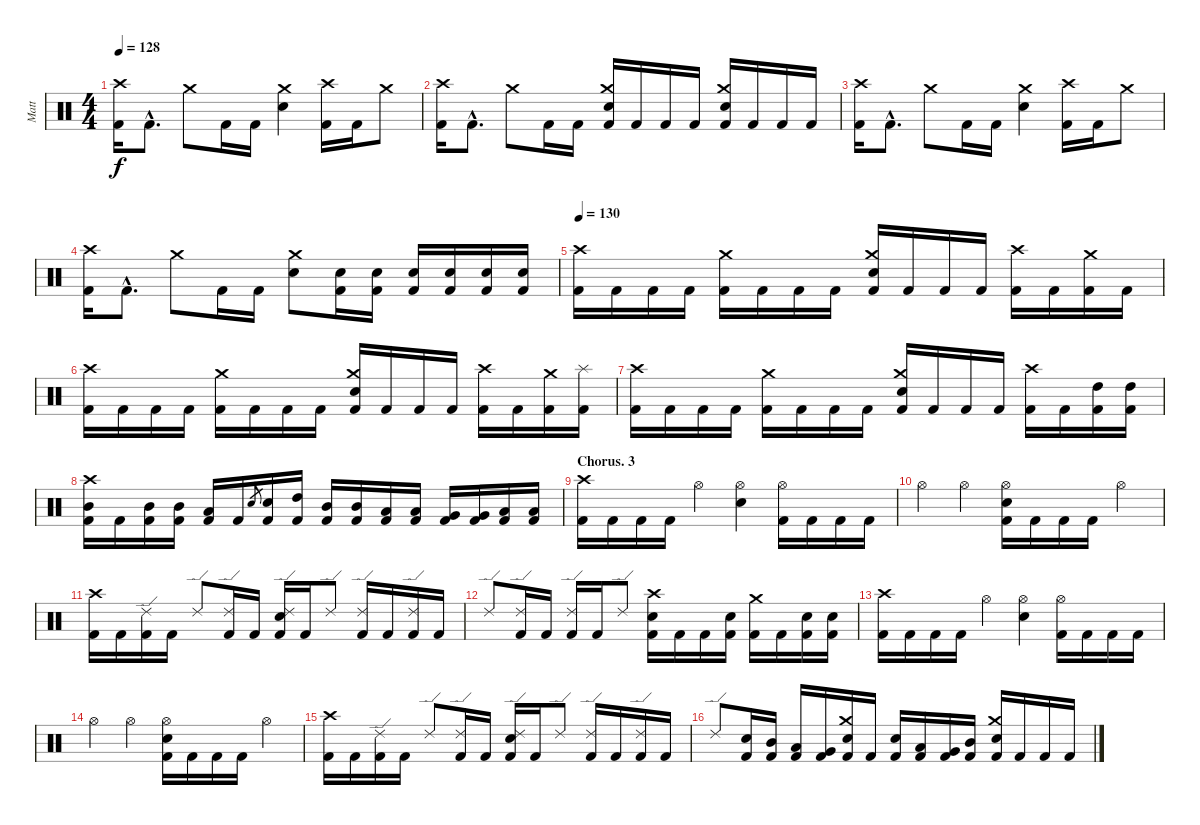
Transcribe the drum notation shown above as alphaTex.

\track ("Matt" "Matt") {instrument percussion}
\staff {score}
\articulation defaults
\ts (4 4)
\tempo 128
\clef neutral
\ks c
("Crash high (hit)" "Kick (hit) 2").16{dy f} "Kick (hit) 2"{hac}.8{d} "Crash medium (hit)".8 "Kick (hit) 2".16 "Kick (hit) 2".16 ("Crash medium (hit)" "Electric Snare (hit)").4 ("Crash high (hit)" "Kick (hit) 2").16 "Kick (hit) 2".16 "Crash medium (hit)".8 |
("Crash high (hit)" "Kick (hit) 2").16 "Kick (hit) 2"{hac}.8{d} "Crash medium (hit)".8 "Kick (hit) 2".16 "Kick (hit) 2".16 ("Crash medium (hit)" "Electric Snare (hit)" "Kick (hit) 2").16 "Kick (hit) 2".16 "Kick (hit) 2".16 "Kick (hit) 2".16 ("Crash medium (hit)" "Electric Snare (hit)" "Kick (hit) 2").16 "Kick (hit) 2".16 "Kick (hit) 2".16 "Kick (hit) 2".16 |
("Crash high (hit)" "Kick (hit) 2").16 "Kick (hit) 2"{hac}.8{d} "Crash medium (hit)".8 "Kick (hit) 2".16 "Kick (hit) 2".16 ("Crash medium (hit)" "Electric Snare (hit)").4 ("Crash high (hit)" "Kick (hit) 2").16 "Kick (hit) 2".16 "Crash medium (hit)".8 |
("Crash high (hit)" "Kick (hit) 2").16 "Kick (hit) 2"{hac}.8{d} "Crash medium (hit)".8 "Kick (hit) 2".16 "Kick (hit) 2".16 ("Crash medium (hit)" "Electric Snare (hit)").8 ("Electric Snare (hit)" "Kick (hit) 2").16 ("Electric Snare (hit)" "Kick (hit) 2").16 ("Electric Snare (hit)" "Kick (hit) 2").16 ("Electric Snare (hit)" "Kick (hit) 2").16 ("Electric Snare (hit)" "Kick (hit) 2").16 ("Electric Snare (hit)" "Kick (hit) 2").16 |
\tempo 130
("Crash high (hit)" "Kick (hit) 2").16 "Kick (hit) 2".16 "Kick (hit) 2".16 "Kick (hit) 2".16 ("Crash medium (hit)" "Kick (hit) 2").16 "Kick (hit) 2".16 "Kick (hit) 2".16 "Kick (hit) 2".16 ("Crash medium (hit)" "Electric Snare (hit)" "Kick (hit) 2").16 "Kick (hit) 2".16 "Kick (hit) 2".16 "Kick (hit) 2".16 ("Crash high (hit)" "Kick (hit) 2").16 "Kick (hit) 2".16 ("Crash medium (hit)" "Kick (hit) 2").16 "Kick (hit) 2".16 |
("Crash high (hit)" "Kick (hit) 2").16 "Kick (hit) 2".16 "Kick (hit) 2".16 "Kick (hit) 2".16 ("Crash medium (hit)" "Kick (hit) 2").16 "Kick (hit) 2".16 "Kick (hit) 2".16 "Kick (hit) 2".16 ("Crash medium (hit)" "Electric Snare (hit)" "Kick (hit) 2").16 "Kick (hit) 2".16 "Kick (hit) 2".16 "Kick (hit) 2".16 ("Crash high (hit)" "Kick (hit) 2").16 "Kick (hit) 2".16 ("Crash medium (hit)" "Kick (hit) 2").16 ("Splash (hit)" "Kick (hit) 2").16 |
("Crash high (hit)" "Kick (hit) 2").16 "Kick (hit) 2".16 "Kick (hit) 2".16 "Kick (hit) 2".16 ("Crash medium (hit)" "Kick (hit) 2").16 "Kick (hit) 2".16 "Kick (hit) 2".16 "Kick (hit) 2".16 ("Crash medium (hit)" "Electric Snare (hit)" "Kick (hit) 2").16 "Kick (hit) 2".16 "Kick (hit) 2".16 "Kick (hit) 2".16 ("Crash high (hit)" "Kick (hit) 2").16 "Kick (hit) 2".16 ("High Tom (hit)" "Kick (hit) 2").16 ("High Tom (hit)" "Kick (hit) 2").16 |
("Crash high (hit)" "Mid Tom (hit)" "Kick (hit) 2").16 "Kick (hit) 2".16 ("Mid Tom (hit)" "Kick (hit) 2").16 ("Mid Tom (hit)" "Kick (hit) 2").16 ("Low Tom (hit)" "Kick (hit) 2").16 "Kick (hit) 2".16 "Electric Snare (hit)".8{gr} ("Electric Snare (hit)" "Kick (hit) 2").16 ("High Tom (hit)" "Kick (hit) 2").16 ("Mid Tom (hit)" "Kick (hit) 2").16 ("Mid Tom (hit)" "Kick (hit) 2").16 ("Low Tom (hit)" "Kick (hit) 2").16 ("Low Tom (hit)" "Kick (hit) 2").16 ("Very Low Tom (hit)" "Kick (hit) 2").16 ("Very Low Tom (hit)" "Kick (hit) 2").16 ("Low Floor Tom (hit)" "Kick (hit) 2").16 ("Low Floor Tom (hit)" "Kick (hit) 2").16 |
\section ("" "Chorus. 3")
("Crash high (hit)" "Kick (hit) 2").16 "Kick (hit) 2".16 "Kick (hit) 2".16 "Kick (hit) 2".16 "Hi-Hat (open)".4 ("Hi-Hat (open)" "Electric Snare (hit)").4 ("Hi-Hat (open)" "Kick (hit) 2").16 "Kick (hit) 2".16 "Kick (hit) 2".16 "Kick (hit) 2".16 |
"Hi-Hat (open)".4 "Hi-Hat (open)".4 ("Hi-Hat (open)" "Electric Snare (hit)" "Kick (hit) 2").16 "Kick (hit) 2".16 "Kick (hit) 2".16 "Kick (hit) 2".16 "Hi-Hat (open)".4 |
("Crash high (hit)" "Kick (hit) 2").16 "Kick (hit) 2".16 ("Ride (edge) 2" "Kick (hit) 2").16 "Kick (hit) 2".16 "Ride (edge) 2".8 ("Ride (edge) 2" "Kick (hit) 2").16 "Kick (hit) 2".16 ("Ride (edge) 2" "Electric Snare (hit)" "Kick (hit) 2").16 "Kick (hit) 2".16 "Ride (edge) 2".8 ("Ride (edge) 2" "Kick (hit) 2").16 "Kick (hit) 2".16 ("Ride (edge) 2" "Kick (hit) 2").16 "Kick (hit) 2".16 |
"Ride (edge) 2".8 ("Ride (edge) 2" "Kick (hit) 2").16 "Kick (hit) 2".16 ("Ride (edge) 2" "Kick (hit) 2").16 "Kick (hit) 2".16 "Ride (edge) 2".8 ("Crash high (hit)" "Electric Snare (hit)" "Kick (hit) 2").16 "Kick (hit) 2".16 "Kick (hit) 2".16 ("Electric Snare (hit)" "Kick (hit) 2").16 ("Crash medium (hit)" "Kick (hit) 2").16 "Kick (hit) 2".16 ("Electric Snare (hit)" "Kick (hit) 2").16 ("Electric Snare (hit)" "Kick (hit) 2").16 |
("Crash high (hit)" "Kick (hit) 2").16 "Kick (hit) 2".16 "Kick (hit) 2".16 "Kick (hit) 2".16 "Hi-Hat (open)".4 ("Hi-Hat (open)" "Electric Snare (hit)").4 ("Hi-Hat (open)" "Kick (hit) 2").16 "Kick (hit) 2".16 "Kick (hit) 2".16 "Kick (hit) 2".16 |
"Hi-Hat (open)".4 "Hi-Hat (open)".4 ("Hi-Hat (open)" "Electric Snare (hit)" "Kick (hit) 2").16 "Kick (hit) 2".16 "Kick (hit) 2".16 "Kick (hit) 2".16 "Hi-Hat (open)".4 |
("Crash high (hit)" "Kick (hit) 2").16 "Kick (hit) 2".16 ("Ride (edge) 2" "Kick (hit) 2").16 "Kick (hit) 2".16 "Ride (edge) 2".8 ("Ride (edge) 2" "Kick (hit) 2").16 "Kick (hit) 2".16 ("Ride (edge) 2" "Electric Snare (hit)" "Kick (hit) 2").16 "Kick (hit) 2".16 "Ride (edge) 2".8 ("Ride (edge) 2" "Kick (hit) 2").16 "Kick (hit) 2".16 ("Ride (edge) 2" "Kick (hit) 2").16 "Kick (hit) 2".16 |
"Ride (edge) 2".8 ("Electric Snare (hit)" "Kick (hit) 2").16 ("Mid Tom (hit)" "Kick (hit) 2").16 ("Low Tom (hit)" "Kick (hit) 2").16 ("Very Low Tom (hit)" "Kick (hit) 2").16 ("Crash medium (hit)" "Electric Snare (hit)" "Kick (hit) 2").16 "Kick (hit) 2".16 ("Electric Snare (hit)" "Kick (hit) 2").16 ("Low Tom (hit)" "Kick (hit) 2").16 ("Very Low Tom (hit)" "Kick (hit) 2").16 ("Mid Tom (hit)" "Kick (hit) 2").16 ("Crash medium (hit)" "Electric Snare (hit)" "Kick (hit) 2").16 "Kick (hit) 2".16 "Kick (hit) 2".16 "Kick (hit) 2".16
